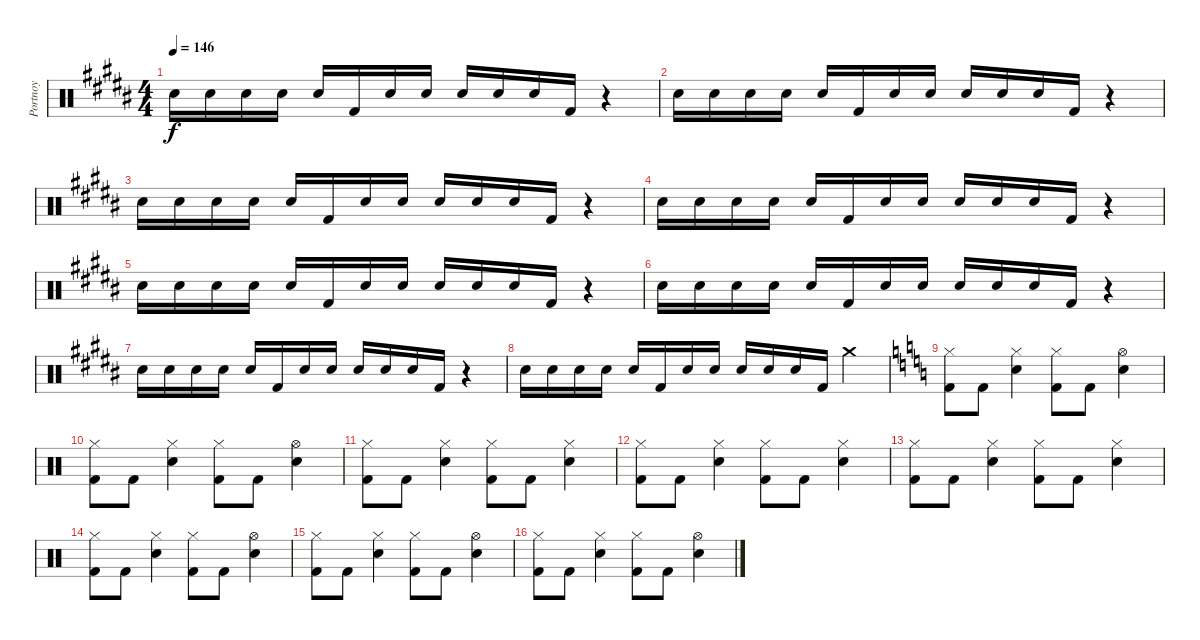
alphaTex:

\track ("Portnoy" "Portnoy") {instrument percussion}
\staff {score}
\articulation defaults
\ts (4 4)
\tempo 146
\clef neutral
\ks b "Electric Snare (hit)".16{dy f} "Electric Snare (hit)".16 "Electric Snare (hit)".16 "Electric Snare (hit)".16 "Electric Snare (hit)".16 "Kick (hit) 2".16 "Electric Snare (hit)".16 "Electric Snare (hit)".16 "Electric Snare (hit)".16 "Electric Snare (hit)".16 "Electric Snare (hit)".16 "Kick (hit) 2".16
r.4 |
\ks g#minor "Electric Snare (hit)".16 "Electric Snare (hit)".16 "Electric Snare (hit)".16 "Electric Snare (hit)".16 "Electric Snare (hit)".16 "Kick (hit) 2".16 "Electric Snare (hit)".16 "Electric Snare (hit)".16 "Electric Snare (hit)".16 "Electric Snare (hit)".16 "Electric Snare (hit)".16 "Kick (hit) 2".16
r.4 |
"Electric Snare (hit)".16 "Electric Snare (hit)".16 "Electric Snare (hit)".16 "Electric Snare (hit)".16 "Electric Snare (hit)".16 "Kick (hit) 2".16 "Electric Snare (hit)".16 "Electric Snare (hit)".16 "Electric Snare (hit)".16 "Electric Snare (hit)".16 "Electric Snare (hit)".16 "Kick (hit) 2".16 r.4 |
"Electric Snare (hit)".16 "Electric Snare (hit)".16 "Electric Snare (hit)".16 "Electric Snare (hit)".16 "Electric Snare (hit)".16 "Kick (hit) 2".16 "Electric Snare (hit)".16 "Electric Snare (hit)".16 "Electric Snare (hit)".16 "Electric Snare (hit)".16 "Electric Snare (hit)".16 "Kick (hit) 2".16 r.4 |
\ks b "Electric Snare (hit)".16 "Electric Snare (hit)".16 "Electric Snare (hit)".16 "Electric Snare (hit)".16 "Electric Snare (hit)".16 "Kick (hit) 2".16 "Electric Snare (hit)".16 "Electric Snare (hit)".16 "Electric Snare (hit)".16 "Electric Snare (hit)".16 "Electric Snare (hit)".16 "Kick (hit) 2".16
r.4 |
\ks g#minor "Electric Snare (hit)".16 "Electric Snare (hit)".16 "Electric Snare (hit)".16 "Electric Snare (hit)".16 "Electric Snare (hit)".16 "Kick (hit) 2".16 "Electric Snare (hit)".16 "Electric Snare (hit)".16 "Electric Snare (hit)".16 "Electric Snare (hit)".16 "Electric Snare (hit)".16 "Kick (hit) 2".16
r.4 |
"Electric Snare (hit)".16 "Electric Snare (hit)".16 "Electric Snare (hit)".16 "Electric Snare (hit)".16 "Electric Snare (hit)".16 "Kick (hit) 2".16 "Electric Snare (hit)".16 "Electric Snare (hit)".16 "Electric Snare (hit)".16 "Electric Snare (hit)".16 "Electric Snare (hit)".16 "Kick (hit) 2".16 r.4 |
"Electric Snare (hit)".16 "Electric Snare (hit)".16 "Electric Snare (hit)".16 "Electric Snare (hit)".16 "Electric Snare (hit)".16 "Kick (hit) 2".16 "Electric Snare (hit)".16 "Electric Snare (hit)".16 "Electric Snare (hit)".16 "Electric Snare (hit)".16 "Electric Snare (hit)".16 "Kick (hit) 2".16 "Crash medium (hit)".4 |
\ks c
("Hi-Hat (closed)" "Kick (hit) 2").8 "Kick (hit) 2".8 ("Hi-Hat (closed)" "Electric Snare (hit)").4 ("Hi-Hat (closed)" "Kick (hit) 2").8 "Kick (hit) 2".8 ("Hi-Hat (open)" "Electric Snare (hit)").4 |
("Hi-Hat (closed)" "Kick (hit) 2").8 "Kick (hit) 2".8 ("Hi-Hat (closed)" "Electric Snare (hit)").4 ("Hi-Hat (closed)" "Kick (hit) 2").8 "Kick (hit) 2".8 ("Hi-Hat (open)" "Electric Snare (hit)").4 |
("Hi-Hat (closed)" "Kick (hit) 2").8 "Kick (hit) 2".8 ("Hi-Hat (closed)" "Electric Snare (hit)").4 ("Hi-Hat (closed)" "Kick (hit) 2").8 "Kick (hit) 2".8 ("Hi-Hat (closed)" "Electric Snare (hit)").4 |
("Hi-Hat (closed)" "Kick (hit) 2").8 "Kick (hit) 2".8 ("Hi-Hat (closed)" "Electric Snare (hit)").4 ("Hi-Hat (closed)" "Kick (hit) 2").8 "Kick (hit) 2".8 ("Hi-Hat (closed)" "Electric Snare (hit)").4 |
("Hi-Hat (closed)" "Kick (hit) 2").8 "Kick (hit) 2".8 ("Hi-Hat (closed)" "Electric Snare (hit)").4 ("Hi-Hat (closed)" "Kick (hit) 2").8 "Kick (hit) 2".8 ("Hi-Hat (closed)" "Electric Snare (hit)").4 |
("Hi-Hat (closed)" "Kick (hit) 2").8 "Kick (hit) 2".8 ("Hi-Hat (closed)" "Electric Snare (hit)").4 ("Hi-Hat (closed)" "Kick (hit) 2").8 "Kick (hit) 2".8 ("Hi-Hat (open)" "Electric Snare (hit)").4 |
("Hi-Hat (closed)" "Kick (hit) 2").8 "Kick (hit) 2".8 ("Hi-Hat (closed)" "Electric Snare (hit)").4 ("Hi-Hat (closed)" "Kick (hit) 2").8 "Kick (hit) 2".8 ("Hi-Hat (open)" "Electric Snare (hit)").4 |
("Hi-Hat (closed)" "Kick (hit) 2").8 "Kick (hit) 2".8 ("Hi-Hat (closed)" "Electric Snare (hit)").4 ("Hi-Hat (closed)" "Kick (hit) 2").8 "Kick (hit) 2".8 ("Hi-Hat (open)" "Electric Snare (hit)").4
